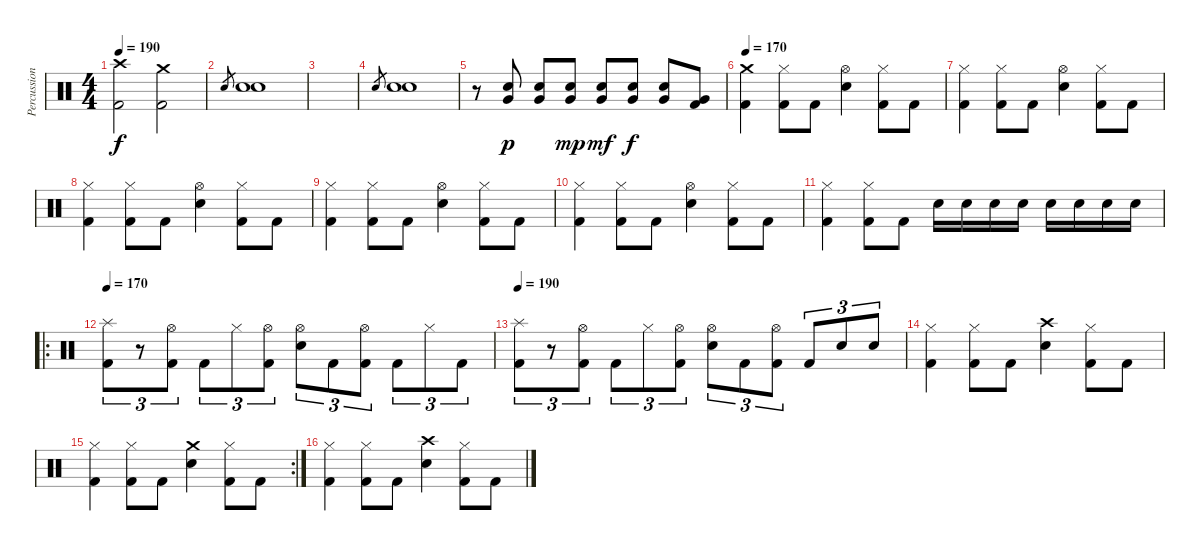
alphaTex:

\track ("Percussions" "Percussion") {instrument percussion}
\staff {score}
\articulation defaults
\ts (4 4)
\tempo 190
\clef neutral
\ks c
("Crash high (hit)" "Kick (hit) 2").2{dy f} ("Crash medium (hit)" "Kick (hit) 2").2 |
"Electric Snare (hit)".8{gr} ("Electric Snare (hit)" "Electric Snare (hit)").1 |
|
"Electric Snare (hit)".8{gr} ("Electric Snare (hit)" "Electric Snare (hit)").1 |
r.8 ("Electric Snare (hit)" "Very Low Tom (hit)").8{dy p} ("Electric Snare (hit)" "Very Low Tom (hit)").8 ("Electric Snare (hit)" "Very Low Tom (hit)").8{dy mp} ("Electric Snare (hit)" "Very Low Tom (hit)").8{dy mf} ("Electric Snare (hit)" "Very Low Tom (hit)").8{dy f} ("Electric Snare (hit)" "Very Low Tom (hit)").8 ("Very Low Tom (hit)" "Kick (hit) 2").8 |
\tempo 170
("Crash medium (hit)" "Kick (hit) 2").4 ("Hi-Hat (closed)" "Kick (hit) 2").8 "Kick (hit) 2".8 ("Hi-Hat (open)" "Electric Snare (hit)").4 ("Hi-Hat (closed)" "Kick (hit) 2").8 "Kick (hit) 2".8 |
("Hi-Hat (closed)" "Kick (hit) 2").4 ("Hi-Hat (closed)" "Kick (hit) 2").8 "Kick (hit) 2".8 ("Hi-Hat (open)" "Electric Snare (hit)").4 ("Hi-Hat (closed)" "Kick (hit) 2").8 "Kick (hit) 2".8 |
("Hi-Hat (closed)" "Kick (hit) 2").4 ("Hi-Hat (closed)" "Kick (hit) 2").8 "Kick (hit) 2".8 ("Hi-Hat (open)" "Electric Snare (hit)").4 ("Hi-Hat (closed)" "Kick (hit) 2").8 "Kick (hit) 2".8 |
("Hi-Hat (closed)" "Kick (hit) 2").4 ("Hi-Hat (closed)" "Kick (hit) 2").8 "Kick (hit) 2".8 ("Hi-Hat (open)" "Electric Snare (hit)").4 ("Hi-Hat (closed)" "Kick (hit) 2").8 "Kick (hit) 2".8 |
("Hi-Hat (closed)" "Kick (hit) 2").4 ("Hi-Hat (closed)" "Kick (hit) 2").8 "Kick (hit) 2".8 ("Hi-Hat (open)" "Electric Snare (hit)").4 ("Hi-Hat (closed)" "Kick (hit) 2").8 "Kick (hit) 2".8 |
("Hi-Hat (closed)" "Kick (hit) 2").4 ("Hi-Hat (closed)" "Kick (hit) 2").8 "Kick (hit) 2".8 "Electric Snare (hit)".16 "Electric Snare (hit)".16 "Electric Snare (hit)".16 "Electric Snare (hit)".16 "Electric Snare (hit)".16 "Electric Snare (hit)".16 "Electric Snare (hit)".16 "Electric Snare (hit)".16 |
\ro
\tempo 170
("Splash (hit)" "Kick (hit) 2").8{tu (3 2)} r.8{tu (3 2)} ("Hi-Hat (open)" "Kick (hit) 2").8{tu (3 2)} "Kick (hit) 2".8{tu (3 2)} "Hi-Hat (closed)".8{tu (3 2)} ("Hi-Hat (open)" "Kick (hit) 2").8{tu (3 2)} ("Hi-Hat (open)" "Electric Snare (hit)").8{tu (3 2)} "Kick (hit) 2".8{tu (3 2)} ("Hi-Hat (open)" "Kick (hit) 2").8{tu (3 2)} "Kick (hit) 2".8{tu (3 2)} "Hi-Hat (closed)".8{tu (3 2)} "Kick (hit) 2".8{tu (3 2)} |
\tempo 190
("Splash (hit)" "Kick (hit) 2").8{tu (3 2)} r.8{tu (3 2)} ("Hi-Hat (open)" "Kick (hit) 2").8{tu (3 2)} "Kick (hit) 2".8{tu (3 2)} "Hi-Hat (closed)".8{tu (3 2)} ("Hi-Hat (open)" "Kick (hit) 2").8{tu (3 2)} ("Hi-Hat (open)" "Electric Snare (hit)").8{tu (3 2)} "Kick (hit) 2".8{tu (3 2)} ("Hi-Hat (open)" "Kick (hit) 2").8{tu (3 2)} "Kick (hit) 2".8{tu (3 2)} "Electric Snare (hit)".8{tu (3 2)} "Electric Snare (hit)".8{tu (3 2)} |
("Hi-Hat (closed)" "Kick (hit) 2").4 ("Hi-Hat (closed)" "Kick (hit) 2").8 "Kick (hit) 2".8 ("Crash high (hit)" "Electric Snare (hit)").4 ("Hi-Hat (closed)" "Kick (hit) 2").8 "Kick (hit) 2".8 |
\rc 2
("Hi-Hat (closed)" "Kick (hit) 2").4 ("Hi-Hat (closed)" "Kick (hit) 2").8 "Kick (hit) 2".8 ("Crash medium (hit)" "Electric Snare (hit)").4 ("Hi-Hat (closed)" "Kick (hit) 2").8 "Kick (hit) 2".8 |
("Hi-Hat (closed)" "Kick (hit) 2").4 ("Hi-Hat (closed)" "Kick (hit) 2").8 "Kick (hit) 2".8 ("Crash high (hit)" "Electric Snare (hit)").4 ("Hi-Hat (closed)" "Kick (hit) 2").8 "Kick (hit) 2".8
